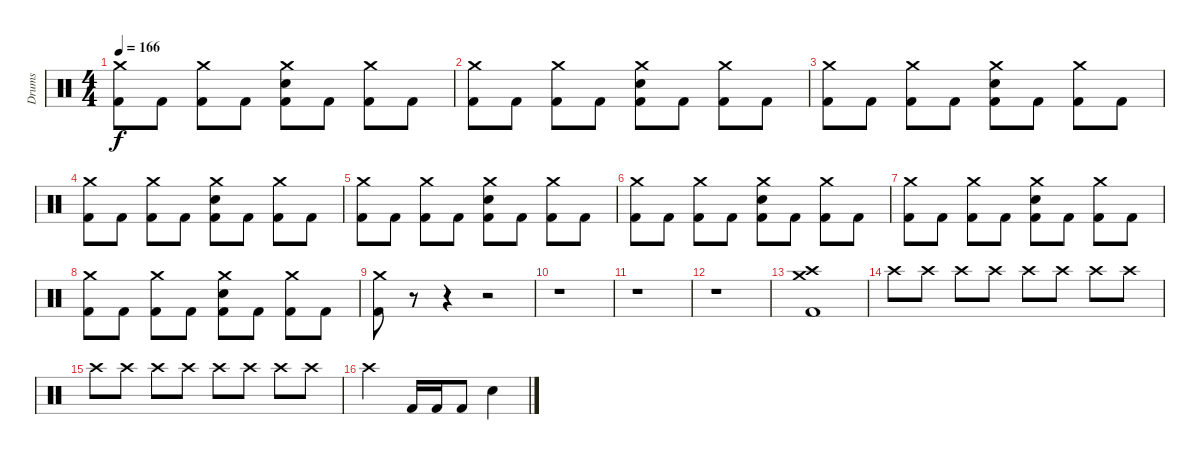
\track ("Drums" "Drums") {instrument percussion}
\staff {score}
\articulation defaults
\ts (4 4)
\tempo 166
\clef neutral
\ks c
("Crash medium (hit)" "Kick (hit) 2").8{dy f} "Kick (hit) 2".8 ("Crash medium (hit)" "Kick (hit) 2").8 "Kick (hit) 2".8 ("Crash medium (hit)" "Snare (hit) 2" "Kick (hit) 2").8 "Kick (hit) 2".8 ("Crash medium (hit)" "Kick (hit) 2").8 "Kick (hit) 2".8 |
("Crash medium (hit)" "Kick (hit) 2").8 "Kick (hit) 2".8 ("Crash medium (hit)" "Kick (hit) 2").8 "Kick (hit) 2".8 ("Crash medium (hit)" "Snare (hit) 2" "Kick (hit) 2").8 "Kick (hit) 2".8 ("Crash medium (hit)" "Kick (hit) 2").8 "Kick (hit) 2".8 |
("Crash medium (hit)" "Kick (hit) 2").8 "Kick (hit) 2".8 ("Crash medium (hit)" "Kick (hit) 2").8 "Kick (hit) 2".8 ("Crash medium (hit)" "Snare (hit) 2" "Kick (hit) 2").8 "Kick (hit) 2".8 ("Crash medium (hit)" "Kick (hit) 2").8 "Kick (hit) 2".8 |
("Crash medium (hit)" "Kick (hit) 2").8 "Kick (hit) 2".8 ("Crash medium (hit)" "Kick (hit) 2").8 "Kick (hit) 2".8 ("Crash medium (hit)" "Snare (hit) 2" "Kick (hit) 2").8 "Kick (hit) 2".8 ("Crash medium (hit)" "Kick (hit) 2").8 "Kick (hit) 2".8 |
("Crash medium (hit)" "Kick (hit) 2").8 "Kick (hit) 2".8 ("Crash medium (hit)" "Kick (hit) 2").8 "Kick (hit) 2".8 ("Crash medium (hit)" "Snare (hit) 2" "Kick (hit) 2").8 "Kick (hit) 2".8 ("Crash medium (hit)" "Kick (hit) 2").8 "Kick (hit) 2".8 |
("Crash medium (hit)" "Kick (hit) 2").8 "Kick (hit) 2".8 ("Crash medium (hit)" "Kick (hit) 2").8 "Kick (hit) 2".8 ("Crash medium (hit)" "Snare (hit) 2" "Kick (hit) 2").8 "Kick (hit) 2".8 ("Crash medium (hit)" "Kick (hit) 2").8 "Kick (hit) 2".8 |
("Crash medium (hit)" "Kick (hit) 2").8 "Kick (hit) 2".8 ("Crash medium (hit)" "Kick (hit) 2").8 "Kick (hit) 2".8 ("Crash medium (hit)" "Snare (hit) 2" "Kick (hit) 2").8 "Kick (hit) 2".8 ("Crash medium (hit)" "Kick (hit) 2").8 "Kick (hit) 2".8 |
("Crash medium (hit)" "Kick (hit) 2").8 "Kick (hit) 2".8 ("Crash medium (hit)" "Kick (hit) 2").8 "Kick (hit) 2".8 ("Crash medium (hit)" "Snare (hit) 2" "Kick (hit) 2").8 "Kick (hit) 2".8 ("Crash medium (hit)" "Kick (hit) 2").8 "Kick (hit) 2".8 |
("Crash medium (hit)" "Kick (hit) 2").8 r.8 r.4 r.2 |
r.1 |
r.1 |
r.1 |
("Crash medium (hit)" "Crash high (hit)" "Kick (hit) 2").1 |
"Crash high (hit)".8{volume 9} "Crash high (hit)".8 "Crash high (hit)".8 "Crash high (hit)".8 "Crash high (hit)".8 "Crash high (hit)".8 "Crash high (hit)".8 "Crash high (hit)".8 |
"Crash high (hit)".8 "Crash high (hit)".8 "Crash high (hit)".8 "Crash high (hit)".8 "Crash high (hit)".8 "Crash high (hit)".8 "Crash high (hit)".8 "Crash high (hit)".8 |
"Crash high (hit)".2 "Kick (hit) 2".16{volume 16} "Kick (hit) 2".16 "Kick (hit) 2".8 "Snare (hit) 2".4
